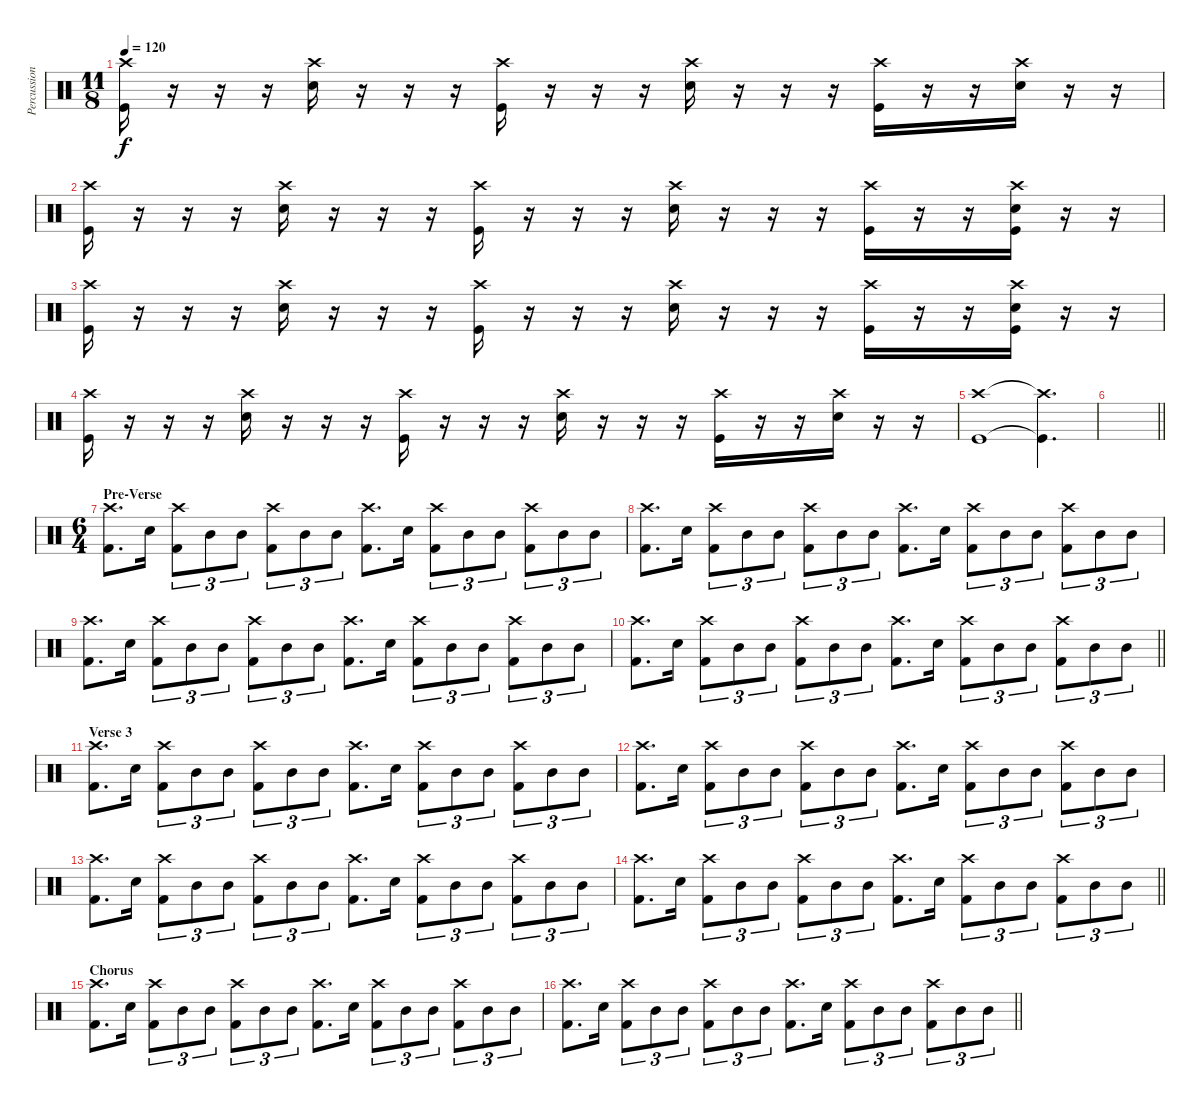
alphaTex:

\track ("Percussion" "Percussion") {instrument percussion}
\staff {score}
\articulation defaults
\ts (11 8)
\tempo 120
\clef neutral
\ks c
("Crash high (hit)" "Kick (hit)").16{dy f} r.16 r.16 r.16 ("Crash high (hit)" "Snare (hit) 2").16 r.16 r.16 r.16 ("Crash high (hit)" "Kick (hit)").16 r.16 r.16 r.16 ("Crash high (hit)" "Snare (hit) 2").16 r.16 r.16 r.16 ("Crash high (hit)" "Kick (hit)").16 r.16 r.16 ("Crash high (hit)" "Snare (hit) 2").16 r.16 r.16 |
("Crash high (hit)" "Kick (hit)").16 r.16 r.16 r.16 ("Crash high (hit)" "Snare (hit) 2").16 r.16 r.16 r.16 ("Crash high (hit)" "Kick (hit)").16 r.16 r.16 r.16 ("Crash high (hit)" "Snare (hit) 2").16 r.16 r.16 r.16 ("Crash high (hit)" "Kick (hit)").16 r.16 r.16 ("Crash high (hit)" "Snare (hit) 2" "Kick (hit)").16 r.16 r.16 |
("Crash high (hit)" "Kick (hit)").16 r.16 r.16 r.16 ("Crash high (hit)" "Snare (hit) 2").16 r.16 r.16 r.16 ("Crash high (hit)" "Kick (hit)").16 r.16 r.16 r.16 ("Crash high (hit)" "Snare (hit) 2").16 r.16 r.16 r.16 ("Crash high (hit)" "Kick (hit)").16 r.16 r.16 ("Crash high (hit)" "Snare (hit) 2" "Kick (hit)").16 r.16 r.16 |
("Crash high (hit)" "Kick (hit)").16 r.16 r.16 r.16 ("Crash high (hit)" "Snare (hit) 2").16 r.16 r.16 r.16 ("Crash high (hit)" "Kick (hit)").16 r.16 r.16 r.16 ("Crash high (hit)" "Snare (hit) 2").16 r.16 r.16 r.16 ("Crash high (hit)" "Kick (hit)").16 r.16 r.16 ("Crash high (hit)" "Snare (hit) 2").16 r.16 r.16 |
("Crash high (hit)" "Kick (hit)").1 ("Crash high (hit)"{t} "Kick (hit)"{t}).4{d} |
\barLineRight lightlight
|
\ts (6 4)
\section ("" "Pre-Verse")
("Crash high (hit)" "Kick (hit) 2").8{d} "Snare (hit) 2".16 ("Crash high (hit)" "Kick (hit) 2").8{tu (3 2)} "Mid Tom (hit)".8{tu (3 2)} "Mid Tom (hit)".8{tu (3 2)} ("Crash high (hit)" "Kick (hit) 2").8{tu (3 2)} "Mid Tom (hit)".8{tu (3 2)} "Mid Tom (hit)".8{tu (3 2)} ("Crash high (hit)" "Kick (hit) 2").8{d} "Snare (hit) 2".16 ("Crash high (hit)" "Kick (hit) 2").8{tu (3 2)} "Mid Tom (hit)".8{tu (3 2)} "Mid Tom (hit)".8{tu (3 2)} ("Crash high (hit)" "Kick (hit) 2").8{tu (3 2)} "Mid Tom (hit)".8{tu (3 2)} "Mid Tom (hit)".8{tu (3 2)} |
("Crash high (hit)" "Kick (hit) 2").8{d} "Snare (hit) 2".16 ("Crash high (hit)" "Kick (hit) 2").8{tu (3 2)} "Mid Tom (hit)".8{tu (3 2)} "Mid Tom (hit)".8{tu (3 2)} ("Crash high (hit)" "Kick (hit) 2").8{tu (3 2)} "Mid Tom (hit)".8{tu (3 2)} "Mid Tom (hit)".8{tu (3 2)} ("Crash high (hit)" "Kick (hit) 2").8{d} "Snare (hit) 2".16 ("Crash high (hit)" "Kick (hit) 2").8{tu (3 2)} "Mid Tom (hit)".8{tu (3 2)} "Mid Tom (hit)".8{tu (3 2)} ("Crash high (hit)" "Kick (hit) 2").8{tu (3 2)} "Mid Tom (hit)".8{tu (3 2)} "Mid Tom (hit)".8{tu (3 2)} |
("Crash high (hit)" "Kick (hit) 2").8{d} "Snare (hit) 2".16 ("Crash high (hit)" "Kick (hit) 2").8{tu (3 2)} "Mid Tom (hit)".8{tu (3 2)} "Mid Tom (hit)".8{tu (3 2)} ("Crash high (hit)" "Kick (hit) 2").8{tu (3 2)} "Mid Tom (hit)".8{tu (3 2)} "Mid Tom (hit)".8{tu (3 2)} ("Crash high (hit)" "Kick (hit) 2").8{d} "Snare (hit) 2".16 ("Crash high (hit)" "Kick (hit) 2").8{tu (3 2)} "Mid Tom (hit)".8{tu (3 2)} "Mid Tom (hit)".8{tu (3 2)} ("Crash high (hit)" "Kick (hit) 2").8{tu (3 2)} "Mid Tom (hit)".8{tu (3 2)} "Mid Tom (hit)".8{tu (3 2)} |
\barLineRight lightlight
("Crash high (hit)" "Kick (hit) 2").8{d} "Snare (hit) 2".16 ("Crash high (hit)" "Kick (hit) 2").8{tu (3 2)} "Mid Tom (hit)".8{tu (3 2)} "Mid Tom (hit)".8{tu (3 2)} ("Crash high (hit)" "Kick (hit) 2").8{tu (3 2)} "Mid Tom (hit)".8{tu (3 2)} "Mid Tom (hit)".8{tu (3 2)} ("Crash high (hit)" "Kick (hit) 2").8{d} "Snare (hit) 2".16 ("Crash high (hit)" "Kick (hit) 2").8{tu (3 2)} "Mid Tom (hit)".8{tu (3 2)} "Mid Tom (hit)".8{tu (3 2)} ("Crash high (hit)" "Kick (hit) 2").8{tu (3 2)} "Mid Tom (hit)".8{tu (3 2)} "Mid Tom (hit)".8{tu (3 2)} |
\section ("" "Verse 3")
("Crash high (hit)" "Kick (hit) 2").8{d} "Snare (hit) 2".16 ("Crash high (hit)" "Kick (hit) 2").8{tu (3 2)} "Mid Tom (hit)".8{tu (3 2)} "Mid Tom (hit)".8{tu (3 2)} ("Crash high (hit)" "Kick (hit) 2").8{tu (3 2)} "Mid Tom (hit)".8{tu (3 2)} "Mid Tom (hit)".8{tu (3 2)} ("Crash high (hit)" "Kick (hit) 2").8{d} "Snare (hit) 2".16 ("Crash high (hit)" "Kick (hit) 2").8{tu (3 2)} "Mid Tom (hit)".8{tu (3 2)} "Mid Tom (hit)".8{tu (3 2)} ("Crash high (hit)" "Kick (hit) 2").8{tu (3 2)} "Mid Tom (hit)".8{tu (3 2)} "Mid Tom (hit)".8{tu (3 2)} |
("Crash high (hit)" "Kick (hit) 2").8{d} "Snare (hit) 2".16 ("Crash high (hit)" "Kick (hit) 2").8{tu (3 2)} "Mid Tom (hit)".8{tu (3 2)} "Mid Tom (hit)".8{tu (3 2)} ("Crash high (hit)" "Kick (hit) 2").8{tu (3 2)} "Mid Tom (hit)".8{tu (3 2)} "Mid Tom (hit)".8{tu (3 2)} ("Crash high (hit)" "Kick (hit) 2").8{d} "Snare (hit) 2".16 ("Crash high (hit)" "Kick (hit) 2").8{tu (3 2)} "Mid Tom (hit)".8{tu (3 2)} "Mid Tom (hit)".8{tu (3 2)} ("Crash high (hit)" "Kick (hit) 2").8{tu (3 2)} "Mid Tom (hit)".8{tu (3 2)} "Mid Tom (hit)".8{tu (3 2)} |
("Crash high (hit)" "Kick (hit) 2").8{d} "Snare (hit) 2".16 ("Crash high (hit)" "Kick (hit) 2").8{tu (3 2)} "Mid Tom (hit)".8{tu (3 2)} "Mid Tom (hit)".8{tu (3 2)} ("Crash high (hit)" "Kick (hit) 2").8{tu (3 2)} "Mid Tom (hit)".8{tu (3 2)} "Mid Tom (hit)".8{tu (3 2)} ("Crash high (hit)" "Kick (hit) 2").8{d} "Snare (hit) 2".16 ("Crash high (hit)" "Kick (hit) 2").8{tu (3 2)} "Mid Tom (hit)".8{tu (3 2)} "Mid Tom (hit)".8{tu (3 2)} ("Crash high (hit)" "Kick (hit) 2").8{tu (3 2)} "Mid Tom (hit)".8{tu (3 2)} "Mid Tom (hit)".8{tu (3 2)} |
\barLineRight lightlight
("Crash high (hit)" "Kick (hit) 2").8{d} "Snare (hit) 2".16 ("Crash high (hit)" "Kick (hit) 2").8{tu (3 2)} "Mid Tom (hit)".8{tu (3 2)} "Mid Tom (hit)".8{tu (3 2)} ("Crash high (hit)" "Kick (hit) 2").8{tu (3 2)} "Mid Tom (hit)".8{tu (3 2)} "Mid Tom (hit)".8{tu (3 2)} ("Crash high (hit)" "Kick (hit) 2").8{d} "Snare (hit) 2".16 ("Crash high (hit)" "Kick (hit) 2").8{tu (3 2)} "Mid Tom (hit)".8{tu (3 2)} "Mid Tom (hit)".8{tu (3 2)} ("Crash high (hit)" "Kick (hit) 2").8{tu (3 2)} "Mid Tom (hit)".8{tu (3 2)} "Mid Tom (hit)".8{tu (3 2)} |
\section ("" "Chorus")
("Crash high (hit)" "Kick (hit) 2").8{d} "Snare (hit) 2".16 ("Crash high (hit)" "Kick (hit) 2").8{tu (3 2)} "Mid Tom (hit)".8{tu (3 2)} "Mid Tom (hit)".8{tu (3 2)} ("Crash high (hit)" "Kick (hit) 2").8{tu (3 2)} "Mid Tom (hit)".8{tu (3 2)} "Mid Tom (hit)".8{tu (3 2)} ("Crash high (hit)" "Kick (hit) 2").8{d} "Snare (hit) 2".16 ("Crash high (hit)" "Kick (hit) 2").8{tu (3 2)} "Mid Tom (hit)".8{tu (3 2)} "Mid Tom (hit)".8{tu (3 2)} ("Crash high (hit)" "Kick (hit) 2").8{tu (3 2)} "Mid Tom (hit)".8{tu (3 2)} "Mid Tom (hit)".8{tu (3 2)} |
\barLineRight lightlight
("Crash high (hit)" "Kick (hit) 2").8{d} "Snare (hit) 2".16 ("Crash high (hit)" "Kick (hit) 2").8{tu (3 2)} "Mid Tom (hit)".8{tu (3 2)} "Mid Tom (hit)".8{tu (3 2)} ("Crash high (hit)" "Kick (hit) 2").8{tu (3 2)} "Mid Tom (hit)".8{tu (3 2)} "Mid Tom (hit)".8{tu (3 2)} ("Crash high (hit)" "Kick (hit) 2").8{d} "Snare (hit) 2".16 ("Crash high (hit)" "Kick (hit) 2").8{tu (3 2)} "Mid Tom (hit)".8{tu (3 2)} "Mid Tom (hit)".8{tu (3 2)} ("Crash high (hit)" "Kick (hit) 2").8{tu (3 2)} "Mid Tom (hit)".8{tu (3 2)} "Mid Tom (hit)".8{tu (3 2)}
